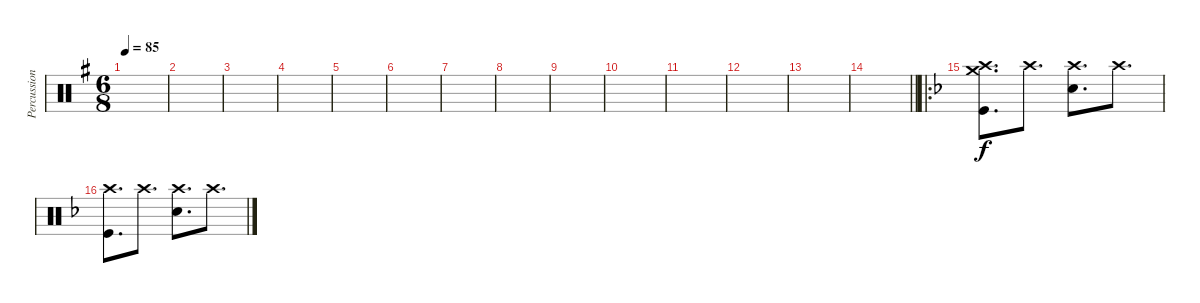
\track ("Percussion" "Percussion") {instrument percussion}
\staff {score}
\articulation defaults
\ts (6 8)
\tempo 85
\clef neutral
\ks g
|
|
|
|
|
|
|
|
|
|
|
|
|
\barLineRight lightlight
|
\ro
\ks f
("Kick (hit)" "Crash high (hit)" "Crash medium (hit)").8{d} "Crash high (hit)".8{d} ("Snare (hit) 2" "Crash high (hit)").8{d} "Crash high (hit)".8{d} |
("Kick (hit)" "Crash high (hit)").8{d} "Crash high (hit)".8{d} ("Snare (hit) 2" "Crash high (hit)").8{d} "Crash high (hit)".8{d}
